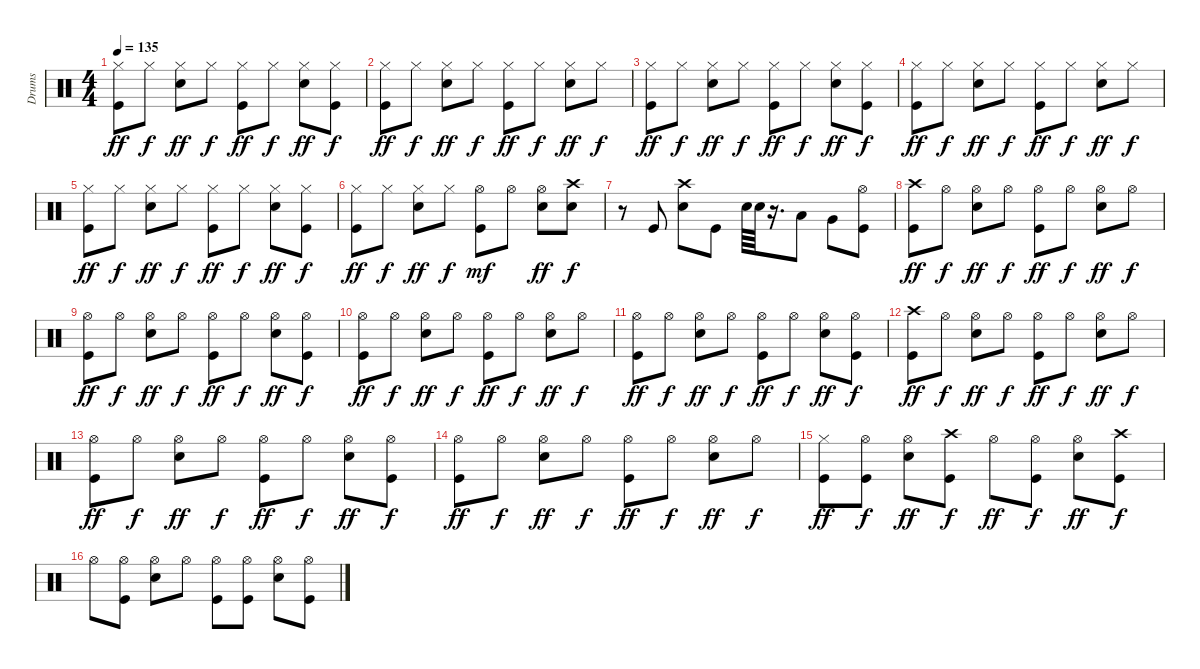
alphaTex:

\track ("Drums" "Drums") {instrument percussion}
\staff {score}
\articulation defaults
\ts (4 4)
\tempo 135
\clef neutral
\ks c
("Hi-Hat (closed)" "Kick (hit)").8{dy ff} "Hi-Hat (closed)".8{dy f} ("Hi-Hat (closed)" "Snare (hit) 2").8{dy ff} "Hi-Hat (closed)".8{dy f} ("Hi-Hat (closed)" "Kick (hit)").8{dy ff} "Hi-Hat (closed)".8{dy f} ("Hi-Hat (closed)" "Snare (hit) 2").8{dy ff} ("Hi-Hat (closed)" "Kick (hit)").8{dy f} |
("Hi-Hat (closed)" "Kick (hit)").8{dy ff} "Hi-Hat (closed)".8{dy f} ("Hi-Hat (closed)" "Snare (hit) 2").8{dy ff} "Hi-Hat (closed)".8{dy f} ("Hi-Hat (closed)" "Kick (hit)").8{dy ff} "Hi-Hat (closed)".8{dy f} ("Hi-Hat (closed)" "Snare (hit) 2").8{dy ff} "Hi-Hat (closed)".8{dy f} |
("Hi-Hat (closed)" "Kick (hit)").8{dy ff} "Hi-Hat (closed)".8{dy f} ("Hi-Hat (closed)" "Snare (hit) 2").8{dy ff} "Hi-Hat (closed)".8{dy f} ("Hi-Hat (closed)" "Kick (hit)").8{dy ff} "Hi-Hat (closed)".8{dy f} ("Hi-Hat (closed)" "Snare (hit) 2").8{dy ff} ("Hi-Hat (closed)" "Kick (hit)").8{dy f} |
("Hi-Hat (closed)" "Kick (hit)").8{dy ff} "Hi-Hat (closed)".8{dy f} ("Hi-Hat (closed)" "Snare (hit) 2").8{dy ff} "Hi-Hat (closed)".8{dy f} ("Hi-Hat (closed)" "Kick (hit)").8{dy ff} "Hi-Hat (closed)".8{dy f} ("Hi-Hat (closed)" "Snare (hit) 2").8{dy ff} "Hi-Hat (closed)".8{dy f} |
("Hi-Hat (closed)" "Kick (hit)").8{dy ff} "Hi-Hat (closed)".8{dy f} ("Hi-Hat (closed)" "Snare (hit) 2").8{dy ff} "Hi-Hat (closed)".8{dy f} ("Hi-Hat (closed)" "Kick (hit)").8{dy ff} "Hi-Hat (closed)".8{dy f} ("Hi-Hat (closed)" "Snare (hit) 2").8{dy ff} ("Hi-Hat (closed)" "Kick (hit)").8{dy f} |
("Hi-Hat (closed)" "Kick (hit)").8{dy ff} "Hi-Hat (closed)".8{dy f} ("Hi-Hat (closed)" "Snare (hit) 2").8{dy ff} "Hi-Hat (closed)".8{dy f} ("Hi-Hat (open)" "Kick (hit)").8{dy mf} "Hi-Hat (open)".8 ("Hi-Hat (open)" "Snare (hit) 2").8{dy ff} ("Crash high (hit)" "Snare (hit) 2").8{dy f} |
r.8 "Kick (hit)".8 ("Crash high (hit)" "Snare (hit) 2").8 "Kick (hit)".8 "Snare (hit) 2".64 "Snare (hit) 2".64 r.16{d} "Low Tom (hit)".8 "Very Low Tom (hit)".8 ("Hi-Hat (open)" "Kick (hit)").8 |
("Crash high (hit)" "Kick (hit)").8{dy ff} "Hi-Hat (open)".8{dy f} ("Hi-Hat (open)" "Snare (hit) 2").8{dy ff} "Hi-Hat (open)".8{dy f} ("Hi-Hat (open)" "Kick (hit)").8{dy ff} "Hi-Hat (open)".8{dy f} ("Hi-Hat (open)" "Snare (hit) 2").8{dy ff} "Hi-Hat (open)".8{dy f} |
("Hi-Hat (open)" "Kick (hit)").8{dy ff} "Hi-Hat (open)".8{dy f} ("Hi-Hat (open)" "Snare (hit) 2").8{dy ff} "Hi-Hat (open)".8{dy f} ("Hi-Hat (open)" "Kick (hit)").8{dy ff} "Hi-Hat (open)".8{dy f} ("Hi-Hat (open)" "Snare (hit) 2").8{dy ff} ("Hi-Hat (open)" "Kick (hit)").8{dy f} |
("Hi-Hat (open)" "Kick (hit)").8{dy ff} "Hi-Hat (open)".8{dy f} ("Hi-Hat (open)" "Snare (hit) 2").8{dy ff} "Hi-Hat (open)".8{dy f} ("Hi-Hat (open)" "Kick (hit)").8{dy ff} "Hi-Hat (open)".8{dy f} ("Hi-Hat (open)" "Snare (hit) 2").8{dy ff} "Hi-Hat (open)".8{dy f} |
("Hi-Hat (open)" "Kick (hit)").8{dy ff} "Hi-Hat (open)".8{dy f} ("Hi-Hat (open)" "Snare (hit) 2").8{dy ff} "Hi-Hat (open)".8{dy f} ("Hi-Hat (open)" "Kick (hit)").8{dy ff} "Hi-Hat (open)".8{dy f} ("Hi-Hat (open)" "Snare (hit) 2").8{dy ff} ("Hi-Hat (open)" "Kick (hit)").8{dy f} |
("Crash high (hit)" "Kick (hit)").8{dy ff} "Hi-Hat (open)".8{dy f} ("Hi-Hat (open)" "Snare (hit) 2").8{dy ff} "Hi-Hat (open)".8{dy f} ("Hi-Hat (open)" "Kick (hit)").8{dy ff} "Hi-Hat (open)".8{dy f} ("Hi-Hat (open)" "Snare (hit) 2").8{dy ff} "Hi-Hat (open)".8{dy f} |
("Hi-Hat (open)" "Kick (hit)").8{dy ff} "Hi-Hat (open)".8{dy f} ("Hi-Hat (open)" "Snare (hit) 2").8{dy ff} "Hi-Hat (open)".8{dy f} ("Hi-Hat (open)" "Kick (hit)").8{dy ff} "Hi-Hat (open)".8{dy f} ("Hi-Hat (open)" "Snare (hit) 2").8{dy ff} ("Hi-Hat (open)" "Kick (hit)").8{dy f} |
("Hi-Hat (open)" "Kick (hit)").8{dy ff} "Hi-Hat (open)".8{dy f} ("Hi-Hat (open)" "Snare (hit) 2").8{dy ff} "Hi-Hat (open)".8{dy f} ("Hi-Hat (open)" "Kick (hit)").8{dy ff} "Hi-Hat (open)".8{dy f} ("Hi-Hat (open)" "Snare (hit) 2").8{dy ff} "Hi-Hat (open)".8{dy f} |
("Hi-Hat (closed)" "Kick (hit)").8{dy ff} ("Hi-Hat (open)" "Kick (hit)").8{dy f} ("Hi-Hat (open)" "Snare (hit) 2").8{dy ff} ("Crash high (hit)" "Kick (hit)").8{dy f} "Hi-Hat (open)".8{dy ff} ("Hi-Hat (open)" "Kick (hit)").8{dy f} ("Hi-Hat (open)" "Snare (hit) 2").8{dy ff} ("Crash high (hit)" "Kick (hit)").8{dy f} |
"Hi-Hat (open)".8 ("Hi-Hat (open)" "Kick (hit)").8 ("Hi-Hat (open)" "Snare (hit) 2").8 "Hi-Hat (open)".8 ("Hi-Hat (open)" "Kick (hit)").8 ("Hi-Hat (open)" "Kick (hit)").8 ("Hi-Hat (open)" "Snare (hit) 2").8 ("Hi-Hat (open)" "Kick (hit)").8
